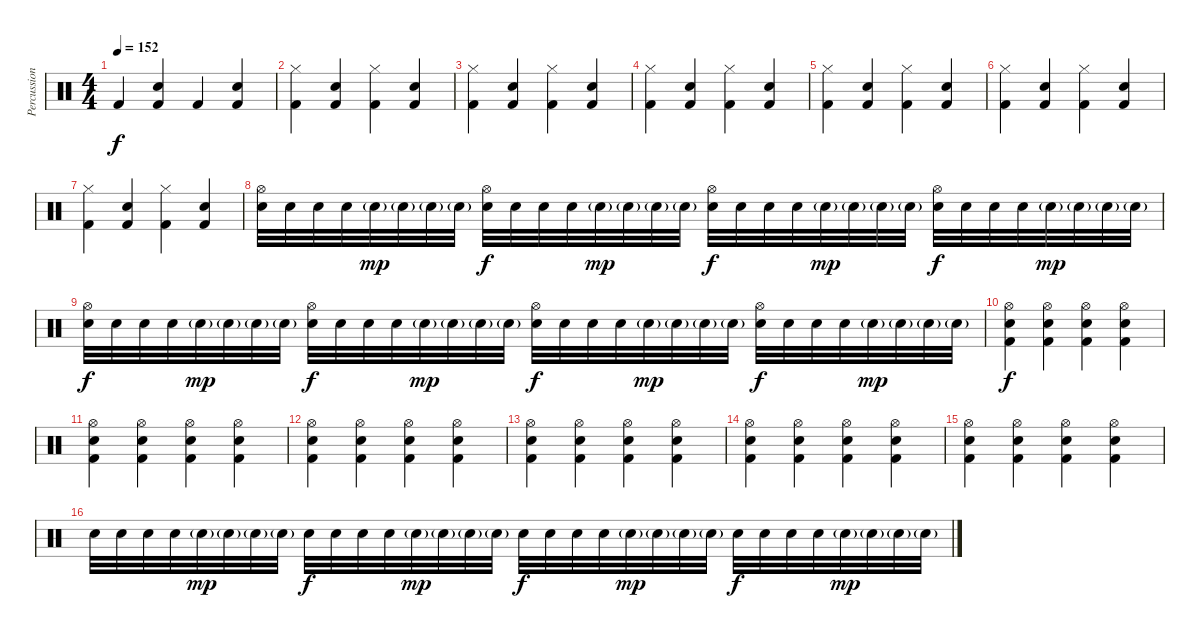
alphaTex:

\track ("Percussion" "Percussion") {instrument percussion}
\staff {score}
\articulation defaults
\ts (4 4)
\tempo 152
\clef neutral
\ks c "Kick (hit) 2".4{dy f}
("Snare (hit) 2" "Kick (hit) 2").4 "Kick (hit) 2".4 ("Snare (hit) 2" "Kick (hit) 2").4 |
("Hi-Hat (closed)" "Kick (hit) 2").4 ("Snare (hit) 2" "Kick (hit) 2").4 ("Hi-Hat (closed)" "Kick (hit) 2").4 ("Snare (hit) 2" "Kick (hit) 2").4 |
("Hi-Hat (closed)" "Kick (hit) 2").4 ("Snare (hit) 2" "Kick (hit) 2").4 ("Hi-Hat (closed)" "Kick (hit) 2").4 ("Snare (hit) 2" "Kick (hit) 2").4 |
("Hi-Hat (closed)" "Kick (hit) 2").4 ("Snare (hit) 2" "Kick (hit) 2").4 ("Hi-Hat (closed)" "Kick (hit) 2").4 ("Snare (hit) 2" "Kick (hit) 2").4 |
("Hi-Hat (closed)" "Kick (hit) 2").4 ("Snare (hit) 2" "Kick (hit) 2").4 ("Hi-Hat (closed)" "Kick (hit) 2").4 ("Snare (hit) 2" "Kick (hit) 2").4 |
("Hi-Hat (closed)" "Kick (hit) 2").4 ("Snare (hit) 2" "Kick (hit) 2").4 ("Hi-Hat (closed)" "Kick (hit) 2").4 ("Snare (hit) 2" "Kick (hit) 2").4 |
("Hi-Hat (closed)" "Kick (hit) 2").4 ("Snare (hit) 2" "Kick (hit) 2").4 ("Hi-Hat (closed)" "Kick (hit) 2").4 ("Snare (hit) 2" "Kick (hit) 2").4 |
("Hi-Hat (open)" "Snare (hit) 2").32 "Snare (hit) 2".32 "Snare (hit) 2".32 "Snare (hit) 2".32 "Snare (hit) 2"{g}.32{dy mp} "Snare (hit) 2"{g}.32 "Snare (hit) 2"{g}.32 "Snare (hit) 2"{g}.32 ("Hi-Hat (open)" "Snare (hit) 2").32{dy f} "Snare (hit) 2".32 "Snare (hit) 2".32 "Snare (hit) 2".32 "Snare (hit) 2"{g}.32{dy mp} "Snare (hit) 2"{g}.32 "Snare (hit) 2"{g}.32 "Snare (hit) 2"{g}.32 ("Hi-Hat (open)" "Snare (hit) 2").32{dy f} "Snare (hit) 2".32 "Snare (hit) 2".32 "Snare (hit) 2".32 "Snare (hit) 2"{g}.32{dy mp} "Snare (hit) 2"{g}.32 "Snare (hit) 2"{g}.32 "Snare (hit) 2"{g}.32 ("Hi-Hat (open)" "Snare (hit) 2").32{dy f} "Snare (hit) 2".32 "Snare (hit) 2".32 "Snare (hit) 2".32 "Snare (hit) 2"{g}.32{dy mp} "Snare (hit) 2"{g}.32 "Snare (hit) 2"{g}.32 "Snare (hit) 2"{g}.32 |
("Hi-Hat (open)" "Snare (hit) 2").32{dy f} "Snare (hit) 2".32 "Snare (hit) 2".32 "Snare (hit) 2".32 "Snare (hit) 2"{g}.32{dy mp} "Snare (hit) 2"{g}.32 "Snare (hit) 2"{g}.32 "Snare (hit) 2"{g}.32 ("Hi-Hat (open)" "Snare (hit) 2").32{dy f} "Snare (hit) 2".32 "Snare (hit) 2".32 "Snare (hit) 2".32 "Snare (hit) 2"{g}.32{dy mp} "Snare (hit) 2"{g}.32 "Snare (hit) 2"{g}.32 "Snare (hit) 2"{g}.32 ("Hi-Hat (open)" "Snare (hit) 2").32{dy f} "Snare (hit) 2".32 "Snare (hit) 2".32 "Snare (hit) 2".32 "Snare (hit) 2"{g}.32{dy mp} "Snare (hit) 2"{g}.32 "Snare (hit) 2"{g}.32 "Snare (hit) 2"{g}.32 ("Hi-Hat (open)" "Snare (hit) 2").32{dy f} "Snare (hit) 2".32 "Snare (hit) 2".32 "Snare (hit) 2".32 "Snare (hit) 2"{g}.32{dy mp} "Snare (hit) 2"{g}.32 "Snare (hit) 2"{g}.32 "Snare (hit) 2"{g}.32 |
("Hi-Hat (open)" "Snare (hit) 2" "Kick (hit) 2").4{dy f} ("Hi-Hat (open)" "Snare (hit) 2" "Kick (hit) 2").4 ("Hi-Hat (open)" "Snare (hit) 2" "Kick (hit) 2").4 ("Hi-Hat (open)" "Snare (hit) 2" "Kick (hit) 2").4 |
("Hi-Hat (open)" "Snare (hit) 2" "Kick (hit) 2").4 ("Hi-Hat (open)" "Snare (hit) 2" "Kick (hit) 2").4 ("Hi-Hat (open)" "Snare (hit) 2" "Kick (hit) 2").4 ("Hi-Hat (open)" "Snare (hit) 2" "Kick (hit) 2").4 |
("Hi-Hat (open)" "Snare (hit) 2" "Kick (hit) 2").4 ("Hi-Hat (open)" "Snare (hit) 2" "Kick (hit) 2").4 ("Hi-Hat (open)" "Snare (hit) 2" "Kick (hit) 2").4 ("Hi-Hat (open)" "Snare (hit) 2" "Kick (hit) 2").4 |
("Hi-Hat (open)" "Snare (hit) 2" "Kick (hit) 2").4 ("Hi-Hat (open)" "Snare (hit) 2" "Kick (hit) 2").4 ("Hi-Hat (open)" "Snare (hit) 2" "Kick (hit) 2").4 ("Hi-Hat (open)" "Snare (hit) 2" "Kick (hit) 2").4 |
("Hi-Hat (open)" "Snare (hit) 2" "Kick (hit) 2").4 ("Hi-Hat (open)" "Snare (hit) 2" "Kick (hit) 2").4 ("Hi-Hat (open)" "Snare (hit) 2" "Kick (hit) 2").4 ("Hi-Hat (open)" "Snare (hit) 2" "Kick (hit) 2").4 |
("Hi-Hat (open)" "Snare (hit) 2" "Kick (hit) 2").4 ("Hi-Hat (open)" "Snare (hit) 2" "Kick (hit) 2").4 ("Hi-Hat (open)" "Snare (hit) 2" "Kick (hit) 2").4 ("Hi-Hat (open)" "Snare (hit) 2" "Kick (hit) 2").4 |
"Snare (hit) 2".32 "Snare (hit) 2".32 "Snare (hit) 2".32 "Snare (hit) 2".32 "Snare (hit) 2"{g}.32{dy mp} "Snare (hit) 2"{g}.32 "Snare (hit) 2"{g}.32 "Snare (hit) 2"{g}.32 "Snare (hit) 2".32{dy f} "Snare (hit) 2".32 "Snare (hit) 2".32 "Snare (hit) 2".32 "Snare (hit) 2"{g}.32{dy mp} "Snare (hit) 2"{g}.32 "Snare (hit) 2"{g}.32 "Snare (hit) 2"{g}.32 "Snare (hit) 2".32{dy f} "Snare (hit) 2".32 "Snare (hit) 2".32 "Snare (hit) 2".32 "Snare (hit) 2"{g}.32{dy mp} "Snare (hit) 2"{g}.32 "Snare (hit) 2"{g}.32 "Snare (hit) 2"{g}.32 "Snare (hit) 2".32{dy f} "Snare (hit) 2".32 "Snare (hit) 2".32 "Snare (hit) 2".32 "Snare (hit) 2"{g}.32{dy mp} "Snare (hit) 2"{g}.32 "Snare (hit) 2"{g}.32 "Snare (hit) 2"{g}.32
